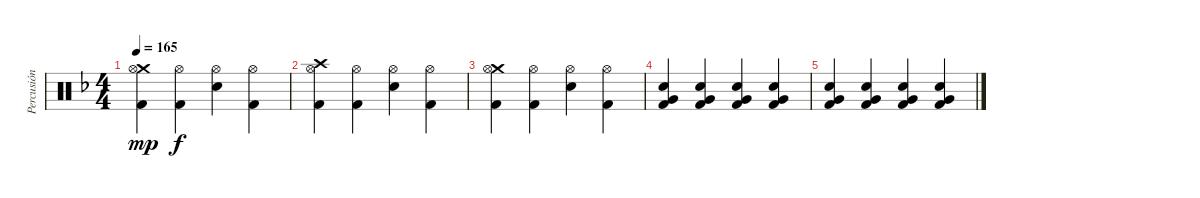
\track ("Percusión" "Percusión") {instrument percussion}
\staff {score}
\articulation defaults
\ts (4 4)
\tempo 165
\clef neutral
\ks f
("Crash medium (hit)" "Hi-Hat (open)" "Kick (hit) 2").4{dy mp} ("Hi-Hat (open)" "Kick (hit) 2").4{dy f} ("Hi-Hat (open)" "Electric Snare (hit)").4 ("Hi-Hat (open)" "Kick (hit) 2").4 |
("Crash high (hit)" "Hi-Hat (open)" "Kick (hit) 2").4 ("Hi-Hat (open)" "Kick (hit) 2").4 ("Hi-Hat (open)" "Electric Snare (hit)").4 ("Hi-Hat (open)" "Kick (hit) 2").4 |
("Crash medium (hit)" "Hi-Hat (open)" "Kick (hit) 2").4 ("Hi-Hat (open)" "Kick (hit) 2").4 ("Hi-Hat (open)" "Electric Snare (hit)").4 ("Hi-Hat (open)" "Kick (hit) 2").4 |
("Very Low Tom (hit)" "Electric Snare (hit)" "Kick (hit) 2").4 ("Very Low Tom (hit)" "Electric Snare (hit)" "Kick (hit) 2").4 ("Very Low Tom (hit)" "Electric Snare (hit)" "Kick (hit) 2").4 ("Very Low Tom (hit)" "Electric Snare (hit)" "Kick (hit) 2").4 |
("Very Low Tom (hit)" "Electric Snare (hit)" "Kick (hit) 2").4 ("Very Low Tom (hit)" "Electric Snare (hit)" "Kick (hit) 2").4 ("Very Low Tom (hit)" "Electric Snare (hit)" "Kick (hit) 2").4 ("Very Low Tom (hit)" "Electric Snare (hit)" "Kick (hit) 2").4
